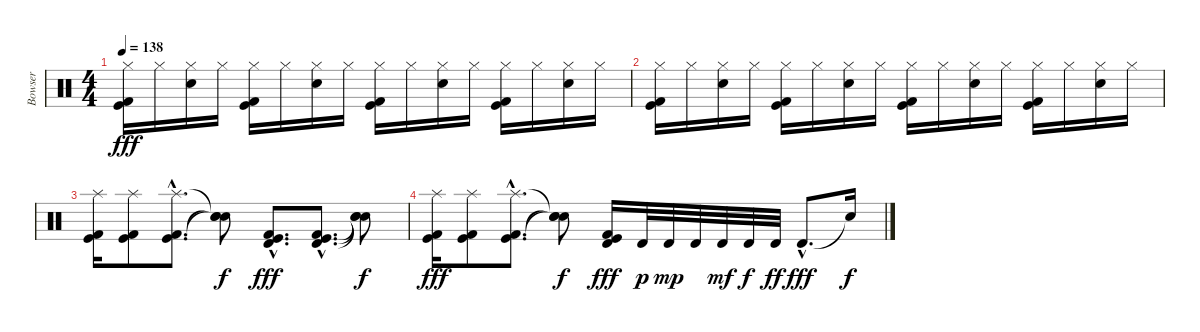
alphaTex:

\track ("Bowser" "Bowser") {instrument percussion}
\staff {score}
\articulation defaults
\ts (4 4)
\tempo 138
\clef neutral
\ks c
("Kick (hit)" "Kick (hit) 2" "Hi-Hat (closed)").16{dy fff} "Hi-Hat (closed)".16 ("Electric Snare (hit)" "Hi-Hat (closed)").16 "Hi-Hat (closed)".16 ("Kick (hit)" "Kick (hit) 2" "Hi-Hat (closed)").16 "Hi-Hat (closed)".16 ("Electric Snare (hit)" "Hi-Hat (closed)").16 "Hi-Hat (closed)".16 ("Kick (hit)" "Kick (hit) 2" "Hi-Hat (closed)").16 "Hi-Hat (closed)".16 ("Electric Snare (hit)" "Hi-Hat (closed)").16 "Hi-Hat (closed)".16 ("Kick (hit)" "Kick (hit) 2" "Hi-Hat (closed)").16 "Hi-Hat (closed)".16 ("Electric Snare (hit)" "Hi-Hat (closed)").16 "Hi-Hat (closed)".16 |
("Kick (hit)" "Kick (hit) 2" "Hi-Hat (closed)").16 "Hi-Hat (closed)".16 ("Electric Snare (hit)" "Hi-Hat (closed)").16 "Hi-Hat (closed)".16 ("Kick (hit)" "Kick (hit) 2" "Hi-Hat (closed)").16 "Hi-Hat (closed)".16 ("Electric Snare (hit)" "Hi-Hat (closed)").16 "Hi-Hat (closed)".16 ("Kick (hit)" "Kick (hit) 2" "Hi-Hat (closed)").16 "Hi-Hat (closed)".16 ("Electric Snare (hit)" "Hi-Hat (closed)").16 "Hi-Hat (closed)".16 ("Kick (hit)" "Kick (hit) 2" "Hi-Hat (closed)").16 "Hi-Hat (closed)".16 ("Electric Snare (hit)" "Hi-Hat (closed)").16 "Hi-Hat (closed)".16 |
("Kick (hit)" "Kick (hit) 2" "Splash (hit)").16 ("Kick (hit)" "Kick (hit) 2" "Splash (hit)").8 ("Kick (hit)"{hac} "Kick (hit) 2"{hac} "Splash (hit)"{hac}).8{d} ("Snare (hit)"{t} "Snare (hit)"{t} "Snare (hit)"{t}).8{dy f} ("Kick (hit)"{hac} "Kick (hit) 2"{hac} "Timbale high (hit)"{hac}).8{d dy fff} ("Kick (hit)"{hac} "Kick (hit) 2"{hac} "Timbale high (hit)"{hac}).8{d} ("Snare (hit)"{t} "Snare (hit)"{t} "Snare (hit)"{t}).8{dy f} |
("Kick (hit)" "Kick (hit) 2" "Splash (hit)").16{dy fff} ("Kick (hit)" "Kick (hit) 2" "Splash (hit)").8 ("Kick (hit)"{hac} "Kick (hit) 2"{hac} "Splash (hit)"{hac}).8{d} ("Snare (hit)"{t} "Snare (hit)"{t} "Snare (hit)"{t}).8{dy f} ("Kick (hit)" "Kick (hit) 2" "Timbale high (hit)").16{dy fff} "Timbale high (hit)".32{dy p} "Timbale high (hit)".32{dy mp} "Timbale high (hit)".32 "Timbale high (hit)".32{dy mf} "Timbale high (hit)".32{dy f} "Timbale high (hit)".32{dy ff} "Timbale high (hit)"{hac}.8{d dy fff} "Snare (hit)"{t}.16{dy f}
